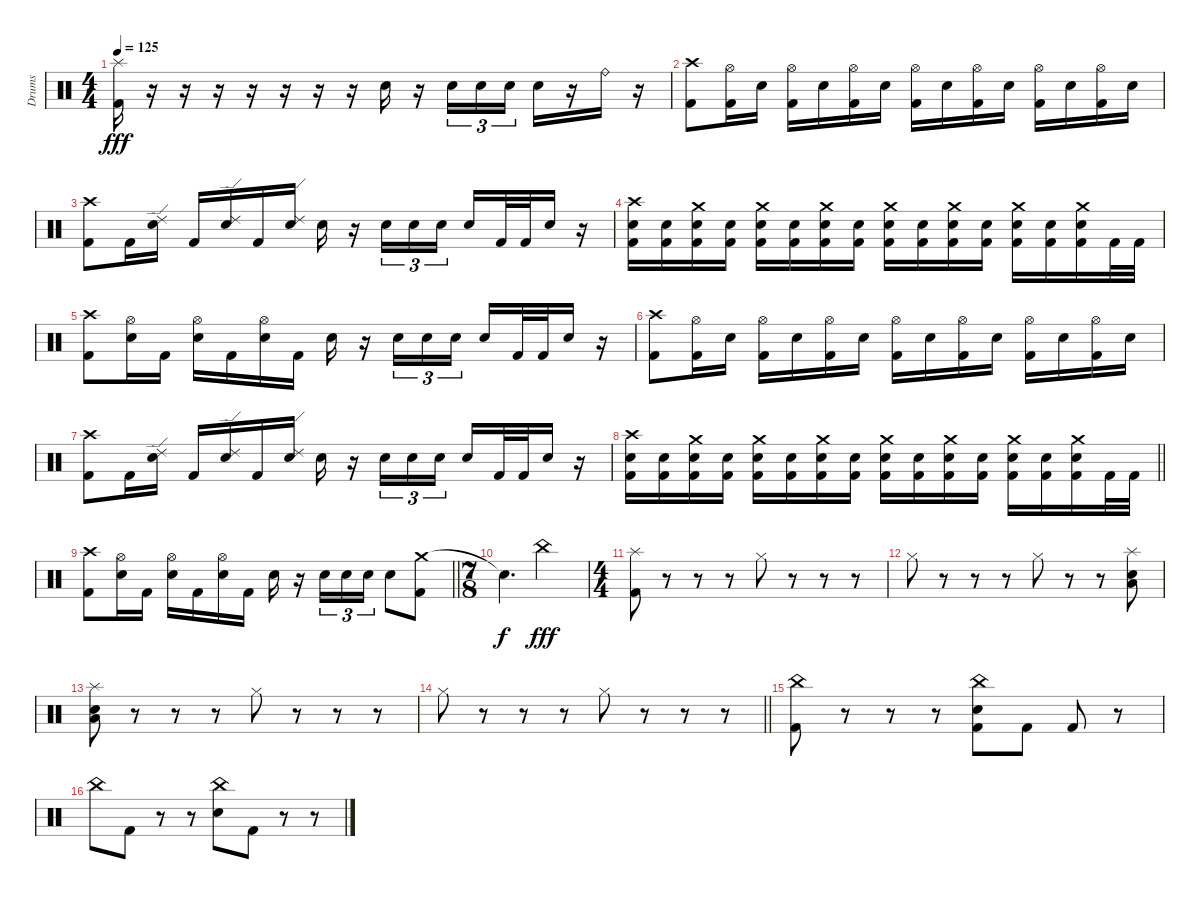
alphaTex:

\track ("Drums" "Drums") {instrument percussion}
\staff {score}
\articulation defaults
\ts (4 4)
\tempo 125
\clef neutral
\ks c
("Splash (hit)" "Kick (hit) 2").16{dy fff} r.16 r.16 r.16 r.16 r.16 r.16 r.16 "Electric Snare (hit)".16 r.16 "Electric Snare (hit)".16{tu (3 2)} "Electric Snare (hit)".16{tu (3 2)} "Electric Snare (hit)".16{tu (3 2)} "Electric Snare (hit)".16 r.16 "Ride (bell)".16 r.16 |
("Crash high (hit)" "Kick (hit) 2").8 ("Hi-Hat (open)" "Kick (hit) 2").16 "Electric Snare (hit)".16 ("Hi-Hat (open)" "Kick (hit) 2").16 "Electric Snare (hit)".16 ("Hi-Hat (open)" "Kick (hit) 2").16 "Electric Snare (hit)".16 ("Hi-Hat (open)" "Kick (hit) 2").16 "Electric Snare (hit)".16 ("Hi-Hat (open)" "Kick (hit) 2").16 "Electric Snare (hit)".16 ("Hi-Hat (open)" "Kick (hit) 2").16 "Electric Snare (hit)".16 ("Hi-Hat (open)" "Kick (hit) 2").16 "Electric Snare (hit)".16 |
("Crash high (hit)" "Kick (hit) 2").8 "Kick (hit) 2".16 ("Ride (edge) 2" "Electric Snare (hit)").16 "Kick (hit) 2".16 ("Ride (edge) 2" "Electric Snare (hit)").16 "Kick (hit) 2".16 ("Ride (edge) 2" "Electric Snare (hit)").16 "Electric Snare (hit)".16 r.16 "Electric Snare (hit)".16{tu (3 2)} "Electric Snare (hit)".16{tu (3 2)} "Electric Snare (hit)".16{tu (3 2)} "Electric Snare (hit)".16 "Kick (hit) 2".32 "Kick (hit) 2".32 "Electric Snare (hit)".16 r.16 |
("Crash high (hit)" "Electric Snare (hit)" "Kick (hit) 2").16 ("Electric Snare (hit)" "Kick (hit) 2").16 ("Crash medium (hit)" "Electric Snare (hit)" "Kick (hit) 2").16 ("Electric Snare (hit)" "Kick (hit) 2").16 ("Crash medium (hit)" "Electric Snare (hit)" "Kick (hit) 2").16 ("Electric Snare (hit)" "Kick (hit) 2").16 ("Crash medium (hit)" "Electric Snare (hit)" "Kick (hit) 2").16 ("Electric Snare (hit)" "Kick (hit) 2").16 ("Crash medium (hit)" "Electric Snare (hit)" "Kick (hit) 2").16 ("Electric Snare (hit)" "Kick (hit) 2").16 ("Crash medium (hit)" "Electric Snare (hit)" "Kick (hit) 2").16 ("Electric Snare (hit)" "Kick (hit) 2").16 ("Crash medium (hit)" "Electric Snare (hit)" "Kick (hit) 2").16 ("Electric Snare (hit)" "Kick (hit) 2").16 ("Crash medium (hit)" "Electric Snare (hit)" "Kick (hit) 2").16 "Kick (hit) 2".32 "Kick (hit) 2".32 |
("Crash high (hit)" "Kick (hit) 2").8 ("Hi-Hat (open)" "Electric Snare (hit)").16 "Kick (hit) 2".16 ("Hi-Hat (open)" "Electric Snare (hit)").16 "Kick (hit) 2".16 ("Hi-Hat (open)" "Electric Snare (hit)").16 "Kick (hit) 2".16 "Electric Snare (hit)".16 r.16 "Electric Snare (hit)".16{tu (3 2)} "Electric Snare (hit)".16{tu (3 2)} "Electric Snare (hit)".16{tu (3 2)} "Electric Snare (hit)".16 "Kick (hit) 2".32 "Kick (hit) 2".32 "Electric Snare (hit)".16 r.16 |
("Crash high (hit)" "Kick (hit) 2").8 ("Hi-Hat (open)" "Kick (hit) 2").16 "Electric Snare (hit)".16 ("Hi-Hat (open)" "Kick (hit) 2").16 "Electric Snare (hit)".16 ("Hi-Hat (open)" "Kick (hit) 2").16 "Electric Snare (hit)".16 ("Hi-Hat (open)" "Kick (hit) 2").16 "Electric Snare (hit)".16 ("Hi-Hat (open)" "Kick (hit) 2").16 "Electric Snare (hit)".16 ("Hi-Hat (open)" "Kick (hit) 2").16 "Electric Snare (hit)".16 ("Hi-Hat (open)" "Kick (hit) 2").16 "Electric Snare (hit)".16 |
("Crash high (hit)" "Kick (hit) 2").8 "Kick (hit) 2".16 ("Ride (edge) 2" "Electric Snare (hit)").16 "Kick (hit) 2".16 ("Ride (edge) 2" "Electric Snare (hit)").16 "Kick (hit) 2".16 ("Ride (edge) 2" "Electric Snare (hit)").16 "Electric Snare (hit)".16 r.16 "Electric Snare (hit)".16{tu (3 2)} "Electric Snare (hit)".16{tu (3 2)} "Electric Snare (hit)".16{tu (3 2)} "Electric Snare (hit)".16 "Kick (hit) 2".32 "Kick (hit) 2".32 "Electric Snare (hit)".16 r.16 |
\barLineRight lightlight
("Crash high (hit)" "Electric Snare (hit)" "Kick (hit) 2").16 ("Electric Snare (hit)" "Kick (hit) 2").16 ("Crash medium (hit)" "Electric Snare (hit)" "Kick (hit) 2").16 ("Electric Snare (hit)" "Kick (hit) 2").16 ("Crash medium (hit)" "Electric Snare (hit)" "Kick (hit) 2").16 ("Electric Snare (hit)" "Kick (hit) 2").16 ("Crash medium (hit)" "Electric Snare (hit)" "Kick (hit) 2").16 ("Electric Snare (hit)" "Kick (hit) 2").16 ("Crash medium (hit)" "Electric Snare (hit)" "Kick (hit) 2").16 ("Electric Snare (hit)" "Kick (hit) 2").16 ("Crash medium (hit)" "Electric Snare (hit)" "Kick (hit) 2").16 ("Electric Snare (hit)" "Kick (hit) 2").16 ("Crash medium (hit)" "Electric Snare (hit)" "Kick (hit) 2").16 ("Electric Snare (hit)" "Kick (hit) 2").16 ("Crash medium (hit)" "Electric Snare (hit)" "Kick (hit) 2").16 "Kick (hit) 2".32 "Kick (hit) 2".32 |
\section ("" "")
\barLineRight lightlight
("Crash high (hit)" "Kick (hit) 2").8 ("Hi-Hat (open)" "Electric Snare (hit)").16 "Kick (hit) 2".16 ("Hi-Hat (open)" "Electric Snare (hit)").16 "Kick (hit) 2".16 ("Hi-Hat (open)" "Electric Snare (hit)").16 "Kick (hit) 2".16 "Electric Snare (hit)".16 r.16 "Electric Snare (hit)".16{tu (3 2)} "Electric Snare (hit)".16{tu (3 2)} "Electric Snare (hit)".16{tu (3 2)} "Electric Snare (hit)".8 ("Crash medium (hit)" "Kick (hit) 2").8 |
\ts (7 8)
\section ("" "")
"Snare (hit)"{t}.4{d dy f} "China (hit)".2{dy fff} |
\ts (4 4)
("Splash (hit)" "Kick (hit) 2").8 r.8 r.8 r.8 "Hi-Hat (closed)".8 r.8 r.8 r.8 |
"Hi-Hat (closed)".8 r.8 r.8 r.8 "Hi-Hat (closed)".8 r.8 r.8 ("Splash (hit)" "Electric Snare (hit)" "Low Tom (hit)").8 |
("Splash (hit)" "Electric Snare (hit)" "Low Tom (hit)").8 r.8 r.8 r.8 "Hi-Hat (closed)".8 r.8 r.8 r.8 |
\barLineRight lightlight "Hi-Hat (closed)".8
r.8 r.8 r.8 "Hi-Hat (closed)".8 r.8 r.8 r.8 |
\section ("" "")
("China (hit)" "Kick (hit) 2").8 r.8 r.8 r.8 ("China (hit)" "Electric Snare (hit)" "Kick (hit) 2").8 "Kick (hit) 2".8 "Kick (hit) 2".8 r.8 |
"China (hit)".8 "Kick (hit) 2".8 r.8 r.8 ("China (hit)" "Electric Snare (hit)").8 "Kick (hit) 2".8 r.8 r.8
